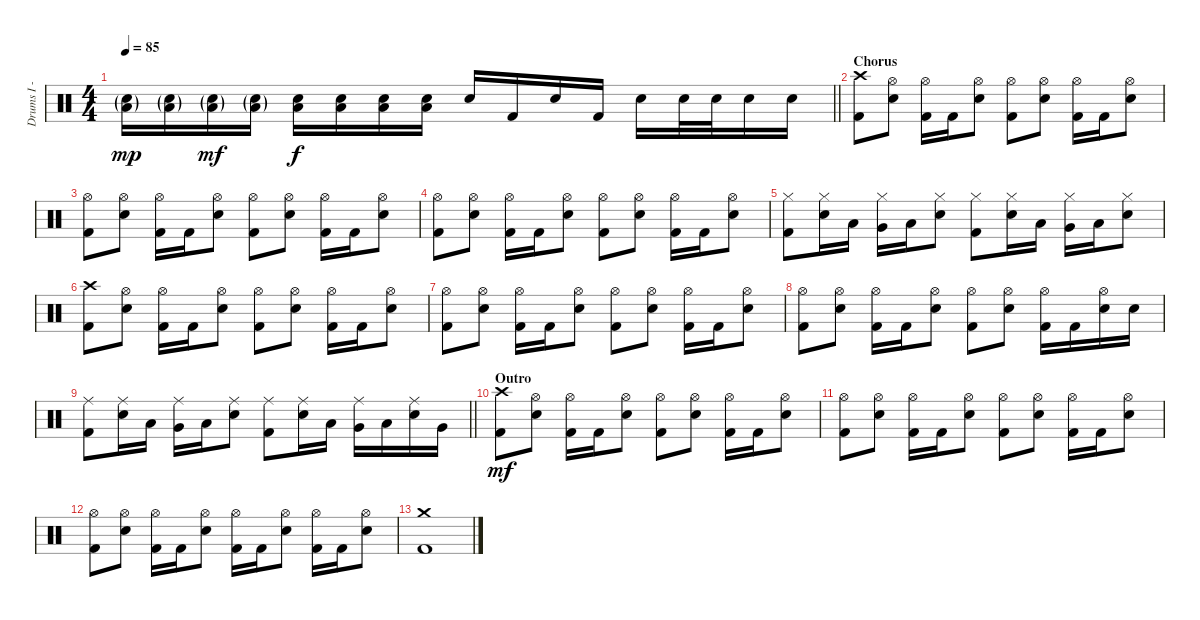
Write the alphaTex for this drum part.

\track ("Drums I - Adam" "Drums I - ") {instrument percussion}
\staff {score}
\articulation defaults
\ts (4 4)
\tempo 85
\clef neutral
\barLineRight lightlight
\ks c
("Snare (hit) 2"{g} "Low Floor Tom (hit)"{g}).16{dy mp} ("Snare (hit) 2"{g} "Low Floor Tom (hit)"{g}).16 ("Snare (hit) 2"{g} "Low Floor Tom (hit)"{g}).16{dy mf} ("Snare (hit) 2"{g} "Low Floor Tom (hit)"{g}).16 ("Snare (hit) 2" "Low Floor Tom (hit)").16{dy f} ("Snare (hit) 2" "Low Floor Tom (hit)").16 ("Snare (hit) 2" "Low Floor Tom (hit)").16 ("Snare (hit) 2" "Low Floor Tom (hit)").16 "Snare (hit) 2".16 "Kick (hit) 2".16 "Snare (hit) 2".16 "Kick (hit) 2".16 "Snare (hit) 2".16 "Snare (hit) 2".32 "Snare (hit) 2".32 "Snare (hit) 2".16 "Snare (hit) 2".16 |
\section ("" "Chorus")
("Kick (hit) 2" "Crash high (hit)").8 ("Snare (hit) 2" "Hi-Hat (open)").8 ("Kick (hit) 2" "Hi-Hat (open)").16 "Kick (hit) 2".16 ("Snare (hit) 2" "Hi-Hat (open)").8 ("Kick (hit) 2" "Hi-Hat (open)").8 ("Snare (hit) 2" "Hi-Hat (open)").8 ("Kick (hit) 2" "Hi-Hat (open)").16 "Kick (hit) 2".16 ("Snare (hit) 2" "Hi-Hat (open)").8 |
("Kick (hit) 2" "Hi-Hat (open)").8 ("Snare (hit) 2" "Hi-Hat (open)").8 ("Kick (hit) 2" "Hi-Hat (open)").16 "Kick (hit) 2".16 ("Snare (hit) 2" "Hi-Hat (open)").8 ("Kick (hit) 2" "Hi-Hat (open)").8 ("Snare (hit) 2" "Hi-Hat (open)").8 ("Kick (hit) 2" "Hi-Hat (open)").16 "Kick (hit) 2".16 ("Snare (hit) 2" "Hi-Hat (open)").8 |
("Kick (hit) 2" "Hi-Hat (open)").8 ("Snare (hit) 2" "Hi-Hat (open)").8 ("Kick (hit) 2" "Hi-Hat (open)").16 "Kick (hit) 2".16 ("Snare (hit) 2" "Hi-Hat (open)").8 ("Kick (hit) 2" "Hi-Hat (open)").8 ("Snare (hit) 2" "Hi-Hat (open)").8 ("Kick (hit) 2" "Hi-Hat (open)").16 "Kick (hit) 2".16 ("Snare (hit) 2" "Hi-Hat (open)").8 |
("Kick (hit) 2" "Hi-Hat (closed)").8 ("Snare (hit) 2" "Hi-Hat (closed)").16 "Low Tom (hit)".16 ("Very Low Tom (hit)" "Hi-Hat (closed)").16 "Low Floor Tom (hit)".16 ("Snare (hit) 2" "Hi-Hat (closed)").8 ("Kick (hit) 2" "Hi-Hat (closed)").8 ("Snare (hit) 2" "Hi-Hat (closed)").16 "Low Tom (hit)".16 ("Very Low Tom (hit)" "Hi-Hat (closed)").16 "Low Floor Tom (hit)".16 ("Snare (hit) 2" "Hi-Hat (closed)").8 |
("Kick (hit) 2" "Crash high (hit)").8 ("Snare (hit) 2" "Hi-Hat (open)").8 ("Kick (hit) 2" "Hi-Hat (open)").16 "Kick (hit) 2".16 ("Snare (hit) 2" "Hi-Hat (open)").8 ("Kick (hit) 2" "Hi-Hat (open)").8 ("Snare (hit) 2" "Hi-Hat (open)").8 ("Kick (hit) 2" "Hi-Hat (open)").16 "Kick (hit) 2".16 ("Snare (hit) 2" "Hi-Hat (open)").8 |
("Kick (hit) 2" "Hi-Hat (open)").8 ("Snare (hit) 2" "Hi-Hat (open)").8 ("Kick (hit) 2" "Hi-Hat (open)").16 "Kick (hit) 2".16 ("Snare (hit) 2" "Hi-Hat (open)").8 ("Kick (hit) 2" "Hi-Hat (open)").8 ("Snare (hit) 2" "Hi-Hat (open)").8 ("Kick (hit) 2" "Hi-Hat (open)").16 "Kick (hit) 2".16 ("Snare (hit) 2" "Hi-Hat (open)").8 |
("Kick (hit) 2" "Hi-Hat (open)").8 ("Snare (hit) 2" "Hi-Hat (open)").8 ("Kick (hit) 2" "Hi-Hat (open)").16 "Kick (hit) 2".16 ("Snare (hit) 2" "Hi-Hat (open)").8 ("Kick (hit) 2" "Hi-Hat (open)").8 ("Snare (hit) 2" "Hi-Hat (open)").8 ("Kick (hit) 2" "Hi-Hat (open)").16 "Kick (hit) 2".16 ("Snare (hit) 2" "Hi-Hat (open)").16 "Snare (hit) 2".16 |
\barLineRight lightlight
("Kick (hit) 2" "Ride (middle)").8 ("Snare (hit) 2" "Ride (middle)").16 "Low Tom (hit)".16 ("Very Low Tom (hit)" "Ride (middle)").16 "Low Floor Tom (hit)".16 ("Snare (hit) 2" "Ride (middle)").8 ("Kick (hit) 2" "Ride (middle)").8 ("Snare (hit) 2" "Ride (middle)").16 "Low Tom (hit)".16 ("Very Low Tom (hit)" "Ride (middle)").16 "Low Floor Tom (hit)".16 ("Snare (hit) 2" "Ride (middle)").16 "Very Low Tom (hit)".16 |
\section ("" "Outro")
("Kick (hit) 2" "Crash high (hit)").8{dy mf} ("Snare (hit) 2" "Hi-Hat (open)").8 ("Kick (hit) 2" "Hi-Hat (open)").16 "Kick (hit) 2".16 ("Snare (hit) 2" "Hi-Hat (open)").8 ("Kick (hit) 2" "Hi-Hat (open)").8 ("Snare (hit) 2" "Hi-Hat (open)").8 ("Kick (hit) 2" "Hi-Hat (open)").16 "Kick (hit) 2".16 ("Snare (hit) 2" "Hi-Hat (open)").8 |
("Kick (hit) 2" "Hi-Hat (open)").8 ("Snare (hit) 2" "Hi-Hat (open)").8 ("Kick (hit) 2" "Hi-Hat (open)").16 "Kick (hit) 2".16 ("Snare (hit) 2" "Hi-Hat (open)").8 ("Kick (hit) 2" "Hi-Hat (open)").8 ("Snare (hit) 2" "Hi-Hat (open)").8 ("Kick (hit) 2" "Hi-Hat (open)").16 "Kick (hit) 2".16 ("Snare (hit) 2" "Hi-Hat (open)").8 |
("Kick (hit) 2" "Hi-Hat (open)").8 ("Snare (hit) 2" "Hi-Hat (open)").8 ("Kick (hit) 2" "Hi-Hat (open)").16 "Kick (hit) 2".16 ("Snare (hit) 2" "Hi-Hat (open)").8 ("Kick (hit) 2" "Hi-Hat (open)").16 "Kick (hit) 2".16 ("Snare (hit) 2" "Hi-Hat (open)").8 ("Kick (hit) 2" "Hi-Hat (open)").16 "Kick (hit) 2".16 ("Snare (hit) 2" "Hi-Hat (open)").8 |
("Kick (hit) 2" "Crash medium (hit)").1
